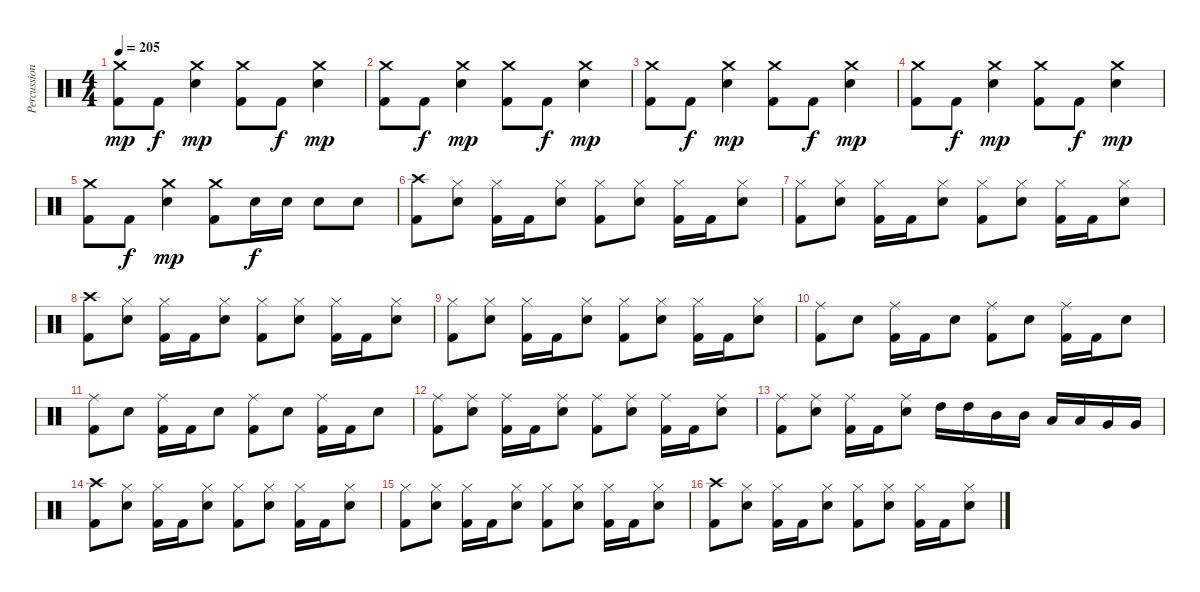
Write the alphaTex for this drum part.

\track ("Percussions" "Percussion") {instrument percussion}
\staff {score}
\articulation defaults
\ts (4 4)
\tempo 205
\clef neutral
\ks c
("Crash medium (hit)" "Kick (hit) 2").8{dy mp} "Kick (hit) 2".8{dy f} ("Crash medium (hit)" "Snare (hit) 2").4{dy mp} ("Crash medium (hit)" "Kick (hit) 2").8 "Kick (hit) 2".8{dy f} ("Crash medium (hit)" "Snare (hit) 2").4{dy mp} |
("Crash medium (hit)" "Kick (hit) 2").8 "Kick (hit) 2".8{dy f} ("Crash medium (hit)" "Snare (hit) 2").4{dy mp} ("Crash medium (hit)" "Kick (hit) 2").8 "Kick (hit) 2".8{dy f} ("Crash medium (hit)" "Snare (hit) 2").4{dy mp} |
("Crash medium (hit)" "Kick (hit) 2").8 "Kick (hit) 2".8{dy f} ("Crash medium (hit)" "Snare (hit) 2").4{dy mp} ("Crash medium (hit)" "Kick (hit) 2").8 "Kick (hit) 2".8{dy f} ("Crash medium (hit)" "Snare (hit) 2").4{dy mp} |
("Crash medium (hit)" "Kick (hit) 2").8 "Kick (hit) 2".8{dy f} ("Crash medium (hit)" "Snare (hit) 2").4{dy mp} ("Crash medium (hit)" "Kick (hit) 2").8 "Kick (hit) 2".8{dy f} ("Crash medium (hit)" "Snare (hit) 2").4{dy mp} |
("Crash medium (hit)" "Kick (hit) 2").8 "Kick (hit) 2".8{dy f} ("Crash medium (hit)" "Snare (hit) 2").4{dy mp} ("Crash medium (hit)" "Kick (hit) 2").8 "Snare (hit) 2".16{dy f} "Snare (hit) 2".16 "Snare (hit) 2".8 "Snare (hit) 2".8 |
("Crash high (hit)" "Kick (hit) 2").8 ("Hi-Hat (closed)" "Snare (hit) 2").8 ("Hi-Hat (closed)" "Kick (hit) 2").16 "Kick (hit) 2".16 ("Hi-Hat (closed)" "Snare (hit) 2").8 ("Hi-Hat (closed)" "Kick (hit) 2").8 ("Hi-Hat (closed)" "Snare (hit) 2").8 ("Hi-Hat (closed)" "Kick (hit) 2").16 "Kick (hit) 2".16 ("Hi-Hat (closed)" "Snare (hit) 2").8 |
("Hi-Hat (closed)" "Kick (hit) 2").8 ("Hi-Hat (closed)" "Snare (hit) 2").8 ("Hi-Hat (closed)" "Kick (hit) 2").16 "Kick (hit) 2".16 ("Hi-Hat (closed)" "Snare (hit) 2").8 ("Hi-Hat (closed)" "Kick (hit) 2").8 ("Hi-Hat (closed)" "Snare (hit) 2").8 ("Hi-Hat (closed)" "Kick (hit) 2").16 "Kick (hit) 2".16 ("Hi-Hat (closed)" "Snare (hit) 2").8 |
("Crash high (hit)" "Kick (hit) 2").8 ("Hi-Hat (closed)" "Snare (hit) 2").8 ("Hi-Hat (closed)" "Kick (hit) 2").16 "Kick (hit) 2".16 ("Hi-Hat (closed)" "Snare (hit) 2").8 ("Hi-Hat (closed)" "Kick (hit) 2").8 ("Hi-Hat (closed)" "Snare (hit) 2").8 ("Hi-Hat (closed)" "Kick (hit) 2").16 "Kick (hit) 2".16 ("Hi-Hat (closed)" "Snare (hit) 2").8 |
("Hi-Hat (closed)" "Kick (hit) 2").8 ("Hi-Hat (closed)" "Snare (hit) 2").8 ("Hi-Hat (closed)" "Kick (hit) 2").16 "Kick (hit) 2".16 ("Hi-Hat (closed)" "Snare (hit) 2").8 ("Hi-Hat (closed)" "Kick (hit) 2").8 ("Hi-Hat (closed)" "Snare (hit) 2").8 ("Hi-Hat (closed)" "Kick (hit) 2").16 "Kick (hit) 2".16 ("Hi-Hat (closed)" "Snare (hit) 2").8 |
("Ride (middle)" "Kick (hit) 2").8 "Snare (hit) 2".8 ("Ride (middle)" "Kick (hit) 2").16 "Kick (hit) 2".16 "Snare (hit) 2".8 ("Ride (middle)" "Kick (hit) 2").8 "Snare (hit) 2".8 ("Ride (middle)" "Kick (hit) 2").16 "Kick (hit) 2".16 "Snare (hit) 2".8 |
("Ride (middle)" "Kick (hit) 2").8 "Snare (hit) 2".8 ("Ride (middle)" "Kick (hit) 2").16 "Kick (hit) 2".16 "Snare (hit) 2".8 ("Ride (middle)" "Kick (hit) 2").8 "Snare (hit) 2".8 ("Ride (middle)" "Kick (hit) 2").16 "Kick (hit) 2".16 "Snare (hit) 2".8 |
("Ride (middle)" "Kick (hit) 2").8 ("Ride (middle)" "Snare (hit) 2").8 ("Ride (middle)" "Kick (hit) 2").16 "Kick (hit) 2".16 ("Ride (middle)" "Snare (hit) 2").8 ("Ride (middle)" "Kick (hit) 2").8 ("Ride (middle)" "Snare (hit) 2").8 ("Ride (middle)" "Kick (hit) 2").16 "Kick (hit) 2".16 ("Ride (middle)" "Snare (hit) 2").8 |
("Ride (middle)" "Kick (hit) 2").8 ("Ride (middle)" "Snare (hit) 2").8 ("Ride (middle)" "Kick (hit) 2").16 "Kick (hit) 2".16 ("Ride (middle)" "Snare (hit) 2").8 "High Tom (hit)".16 "High Tom (hit)".16 "Mid Tom (hit)".16 "Mid Tom (hit)".16 "Low Tom (hit)".16 "Low Tom (hit)".16 "Very Low Tom (hit)".16 "Very Low Tom (hit)".16 |
("Crash high (hit)" "Kick (hit) 2").8 ("Hi-Hat (closed)" "Snare (hit) 2").8 ("Hi-Hat (closed)" "Kick (hit) 2").16 "Kick (hit) 2".16 ("Hi-Hat (closed)" "Snare (hit) 2").8 ("Hi-Hat (closed)" "Kick (hit) 2").8 ("Hi-Hat (closed)" "Snare (hit) 2").8 ("Hi-Hat (closed)" "Kick (hit) 2").16 "Kick (hit) 2".16 ("Hi-Hat (closed)" "Snare (hit) 2").8 |
("Hi-Hat (closed)" "Kick (hit) 2").8 ("Hi-Hat (closed)" "Snare (hit) 2").8 ("Hi-Hat (closed)" "Kick (hit) 2").16 "Kick (hit) 2".16 ("Hi-Hat (closed)" "Snare (hit) 2").8 ("Hi-Hat (closed)" "Kick (hit) 2").8 ("Hi-Hat (closed)" "Snare (hit) 2").8 ("Hi-Hat (closed)" "Kick (hit) 2").16 "Kick (hit) 2".16 ("Hi-Hat (closed)" "Snare (hit) 2").8 |
("Crash high (hit)" "Kick (hit) 2").8 ("Hi-Hat (closed)" "Snare (hit) 2").8 ("Hi-Hat (closed)" "Kick (hit) 2").16 "Kick (hit) 2".16 ("Hi-Hat (closed)" "Snare (hit) 2").8 ("Hi-Hat (closed)" "Kick (hit) 2").8 ("Hi-Hat (closed)" "Snare (hit) 2").8 ("Hi-Hat (closed)" "Kick (hit) 2").16 "Kick (hit) 2".16 ("Hi-Hat (closed)" "Snare (hit) 2").8
